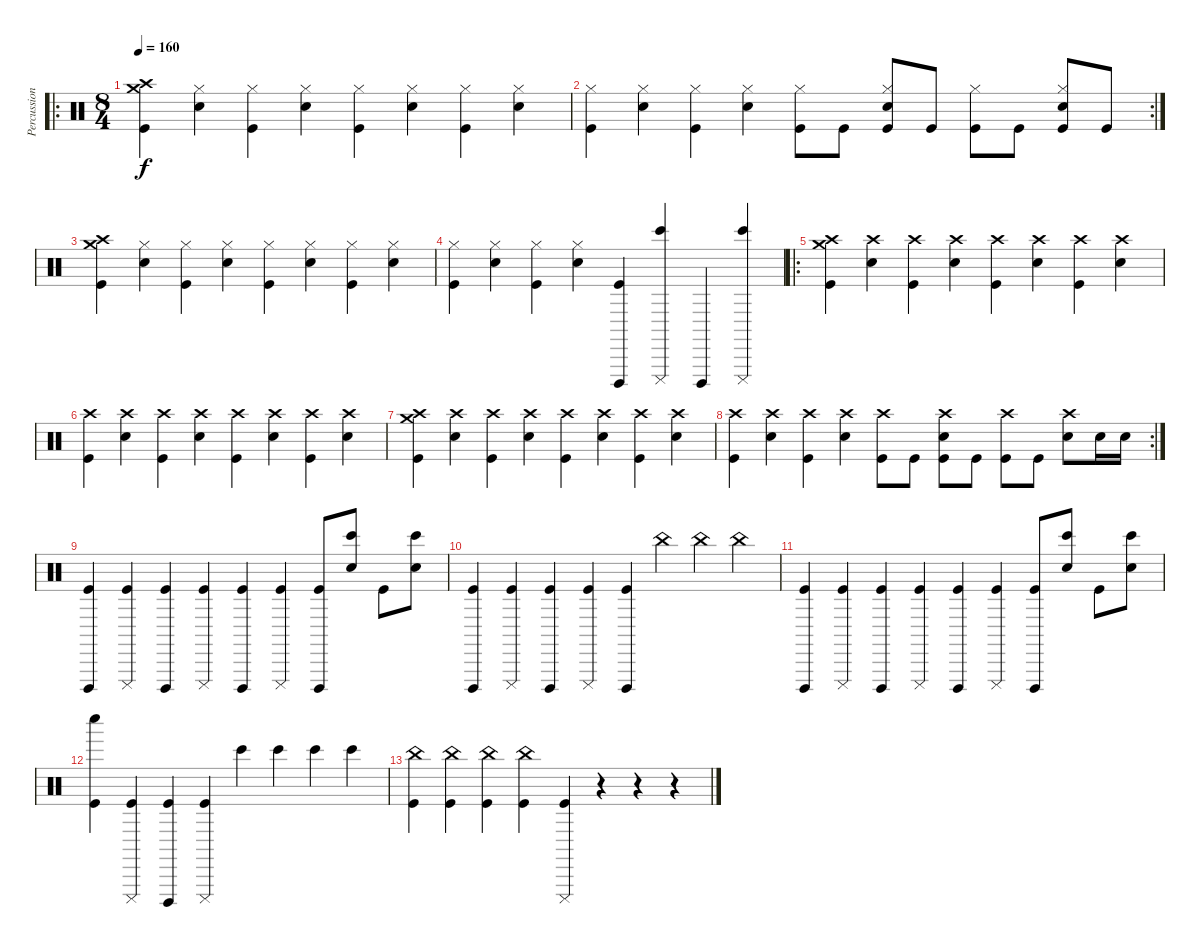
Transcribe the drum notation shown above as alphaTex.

\track ("Percussion" "Percussion") {instrument percussion}
\staff {score}
\articulation defaults
\ro
\ts (8 4)
\tempo 160
\clef neutral
\ks c
("Crash medium (hit)" "Crash high (hit)" "Kick (hit)").4{dy f} ("Hi-Hat (closed)" "Snare (hit) 2").4 ("Hi-Hat (closed)" "Kick (hit)").4 ("Hi-Hat (closed)" "Snare (hit) 2").4 ("Hi-Hat (closed)" "Kick (hit)").4 ("Hi-Hat (closed)" "Snare (hit) 2").4 ("Hi-Hat (closed)" "Kick (hit)").4 ("Hi-Hat (closed)" "Snare (hit) 2").4 |
\rc 2
("Hi-Hat (closed)" "Kick (hit)").4 ("Hi-Hat (closed)" "Snare (hit) 2").4 ("Hi-Hat (closed)" "Kick (hit)").4 ("Hi-Hat (closed)" "Snare (hit) 2").4 ("Hi-Hat (closed)" "Kick (hit)").8 "Kick (hit)".8 ("Hi-Hat (closed)" "Snare (hit) 2" "Kick (hit)").8 "Kick (hit)".8 ("Hi-Hat (closed)" "Kick (hit)").8 "Kick (hit)".8 ("Hi-Hat (closed)" "Snare (hit) 2" "Kick (hit)").8 "Kick (hit)".8 |
("Crash medium (hit)" "Crash high (hit)" "Kick (hit)").4 ("Hi-Hat (closed)" "Snare (hit) 2").4 ("Hi-Hat (closed)" "Kick (hit)").4 ("Hi-Hat (closed)" "Snare (hit) 2").4 ("Hi-Hat (closed)" "Kick (hit)").4 ("Hi-Hat (closed)" "Snare (hit) 2").4 ("Hi-Hat (closed)" "Kick (hit)").4 ("Hi-Hat (closed)" "Snare (hit) 2").4 |
("Hi-Hat (closed)" "Kick (hit)").4 ("Hi-Hat (closed)" "Snare (hit) 2").4 ("Hi-Hat (closed)" "Kick (hit)").4 ("Hi-Hat (closed)" "Snare (hit) 2").4 ("Cuica (open)" "Kick (hit)").4 ("Cuica (mute)" "Bongo High (hit)").4 "Cuica (open)".4 ("Cuica (mute)" "Bongo High (hit)").4 |
\ro
("Crash medium (hit)" "Crash high (hit)" "Kick (hit)").4 ("Crash high (hit)" "Snare (hit) 2").4 ("Crash high (hit)" "Kick (hit)").4 ("Crash high (hit)" "Snare (hit) 2").4 ("Crash high (hit)" "Kick (hit)").4 ("Crash high (hit)" "Snare (hit) 2").4 ("Crash high (hit)" "Kick (hit)").4 ("Crash high (hit)" "Snare (hit) 2").4 |
("Crash high (hit)" "Kick (hit)").4 ("Crash high (hit)" "Snare (hit) 2").4 ("Crash high (hit)" "Kick (hit)").4 ("Crash high (hit)" "Snare (hit) 2").4 ("Crash high (hit)" "Kick (hit)").4 ("Crash high (hit)" "Snare (hit) 2").4 ("Crash high (hit)" "Kick (hit)").4 ("Crash high (hit)" "Snare (hit) 2").4 |
("Crash medium (hit)" "Crash high (hit)" "Kick (hit)").4 ("Crash high (hit)" "Snare (hit) 2").4 ("Crash high (hit)" "Kick (hit)").4 ("Crash high (hit)" "Snare (hit) 2").4 ("Crash high (hit)" "Kick (hit)").4 ("Crash high (hit)" "Snare (hit) 2").4 ("Crash high (hit)" "Kick (hit)").4 ("Crash high (hit)" "Snare (hit) 2").4 |
\rc 2
("Crash high (hit)" "Kick (hit)").4 ("Crash high (hit)" "Snare (hit) 2").4 ("Crash high (hit)" "Kick (hit)").4 ("Crash high (hit)" "Snare (hit) 2").4 ("Crash high (hit)" "Kick (hit)").8 "Kick (hit)".8 ("Crash high (hit)" "Snare (hit) 2" "Kick (hit)").8 "Kick (hit)".8 ("Crash high (hit)" "Kick (hit)").8 "Kick (hit)".8 ("Crash high (hit)" "Snare (hit) 2").8 "Snare (hit) 2".16 "Snare (hit) 2".16 |
("Cuica (open)" "Kick (hit)").4 ("Cuica (mute)" "Kick (hit)").4 ("Cuica (open)" "Kick (hit)").4 ("Cuica (mute)" "Kick (hit)").4 ("Cuica (open)" "Kick (hit)").4 ("Cuica (mute)" "Kick (hit)").4 ("Cuica (open)" "Kick (hit)").8 ("Bongo High (hit)" "Snare (hit) 2").8 "Kick (hit)".8 ("Bongo High (hit)" "Snare (hit) 2").8 |
("Cuica (open)" "Kick (hit)").4 ("Cuica (mute)" "Kick (hit)").4 ("Cuica (open)" "Kick (hit)").4 ("Cuica (mute)" "Kick (hit)").4 ("Cuica (open)" "Kick (hit)").4 "China (hit)".4 "China (hit)".4 "China (hit)".4 |
("Cuica (open)" "Kick (hit)").4 ("Cuica (mute)" "Kick (hit)").4 ("Cuica (open)" "Kick (hit)").4 ("Cuica (mute)" "Kick (hit)").4 ("Cuica (open)" "Kick (hit)").4 ("Cuica (mute)" "Kick (hit)").4 ("Cuica (open)" "Kick (hit)").8 ("Bongo High (hit)" "Snare (hit) 2").8 "Kick (hit)".8 ("Bongo High (hit)" "Snare (hit) 2").8 |
("Whistle low (hit)" "Kick (hit)").4 ("Cuica (mute)" "Kick (hit)").4 ("Cuica (open)" "Kick (hit)").4 ("Cuica (mute)" "Kick (hit)").4 "Bongo High (hit)".4 "Bongo High (hit)".4 "Bongo High (hit)".4 "Bongo High (hit)".4 |
("China (hit)" "Kick (hit)").4 ("China (hit)" "Kick (hit)").4 ("China (hit)" "Kick (hit)").4 ("China (hit)" "Kick (hit)").4 ("Cuica (mute)" "Kick (hit)").4 r.4 r.4 r.4
